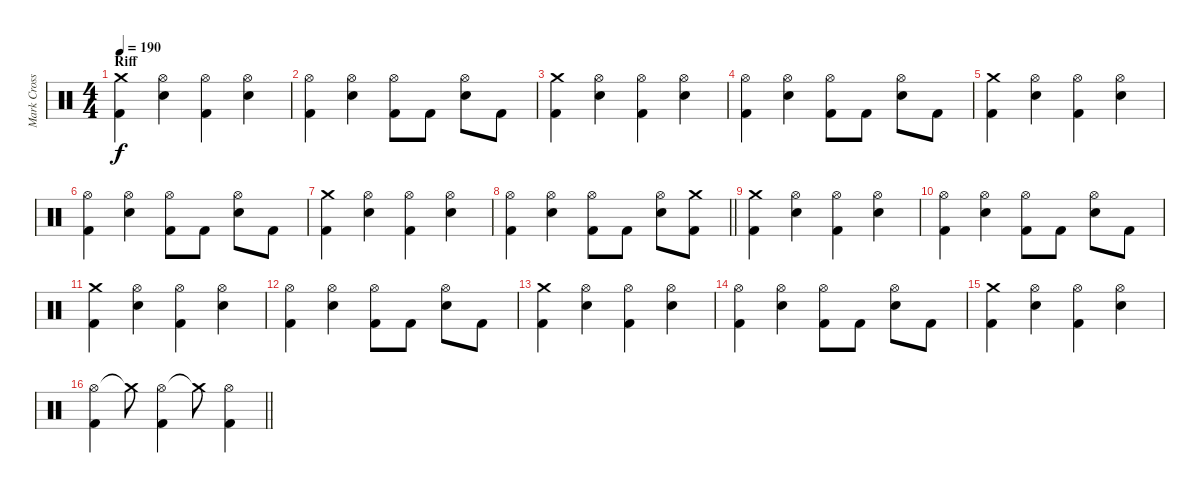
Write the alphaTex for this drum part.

\track ("Mark Cross" "Mark Cross") {instrument percussion}
\staff {score}
\articulation defaults
\ts (4 4)
\section ("" "Riff")
\tempo 190
\clef neutral
\ks c
("Crash medium (hit)" "Kick (hit) 2").4{dy f} ("Hi-Hat (open)" "Electric Snare (hit)").4 ("Hi-Hat (open)" "Kick (hit) 2").4 ("Hi-Hat (open)" "Electric Snare (hit)").4 |
("Hi-Hat (open)" "Kick (hit) 2").4 ("Hi-Hat (open)" "Electric Snare (hit)").4 ("Hi-Hat (open)" "Kick (hit) 2").8 "Kick (hit) 2".8 ("Hi-Hat (open)" "Electric Snare (hit)").8 "Kick (hit) 2".8 |
("Crash medium (hit)" "Kick (hit) 2").4 ("Hi-Hat (open)" "Electric Snare (hit)").4 ("Hi-Hat (open)" "Kick (hit) 2").4 ("Hi-Hat (open)" "Electric Snare (hit)").4 |
("Hi-Hat (open)" "Kick (hit) 2").4 ("Hi-Hat (open)" "Electric Snare (hit)").4 ("Hi-Hat (open)" "Kick (hit) 2").8 "Kick (hit) 2".8 ("Hi-Hat (open)" "Electric Snare (hit)").8 "Kick (hit) 2".8 |
("Crash medium (hit)" "Kick (hit) 2").4 ("Hi-Hat (open)" "Electric Snare (hit)").4 ("Hi-Hat (open)" "Kick (hit) 2").4 ("Hi-Hat (open)" "Electric Snare (hit)").4 |
("Hi-Hat (open)" "Kick (hit) 2").4 ("Hi-Hat (open)" "Electric Snare (hit)").4 ("Hi-Hat (open)" "Kick (hit) 2").8 "Kick (hit) 2".8 ("Hi-Hat (open)" "Electric Snare (hit)").8 "Kick (hit) 2".8 |
("Crash medium (hit)" "Kick (hit) 2").4 ("Hi-Hat (open)" "Electric Snare (hit)").4 ("Hi-Hat (open)" "Kick (hit) 2").4 ("Hi-Hat (open)" "Electric Snare (hit)").4 |
\barLineRight lightlight
("Hi-Hat (open)" "Kick (hit) 2").4 ("Hi-Hat (open)" "Electric Snare (hit)").4 ("Hi-Hat (open)" "Kick (hit) 2").8 "Kick (hit) 2".8 ("Hi-Hat (open)" "Electric Snare (hit)").8 ("Crash medium (hit)" "Kick (hit) 2").8 |
("Crash medium (hit)" "Kick (hit) 2").4 ("Hi-Hat (open)" "Electric Snare (hit)").4 ("Hi-Hat (open)" "Kick (hit) 2").4 ("Hi-Hat (open)" "Electric Snare (hit)").4 |
("Hi-Hat (open)" "Kick (hit) 2").4 ("Hi-Hat (open)" "Electric Snare (hit)").4 ("Hi-Hat (open)" "Kick (hit) 2").8 "Kick (hit) 2".8 ("Hi-Hat (open)" "Electric Snare (hit)").8 "Kick (hit) 2".8 |
("Crash medium (hit)" "Kick (hit) 2").4 ("Hi-Hat (open)" "Electric Snare (hit)").4 ("Hi-Hat (open)" "Kick (hit) 2").4 ("Hi-Hat (open)" "Electric Snare (hit)").4 |
("Hi-Hat (open)" "Kick (hit) 2").4 ("Hi-Hat (open)" "Electric Snare (hit)").4 ("Hi-Hat (open)" "Kick (hit) 2").8 "Kick (hit) 2".8 ("Hi-Hat (open)" "Electric Snare (hit)").8 "Kick (hit) 2".8 |
("Crash medium (hit)" "Kick (hit) 2").4 ("Hi-Hat (open)" "Electric Snare (hit)").4 ("Hi-Hat (open)" "Kick (hit) 2").4 ("Hi-Hat (open)" "Electric Snare (hit)").4 |
("Hi-Hat (open)" "Kick (hit) 2").4 ("Hi-Hat (open)" "Electric Snare (hit)").4 ("Hi-Hat (open)" "Kick (hit) 2").8 "Kick (hit) 2".8 ("Hi-Hat (open)" "Electric Snare (hit)").8 "Kick (hit) 2".8 |
("Crash medium (hit)" "Kick (hit) 2").4 ("Hi-Hat (open)" "Electric Snare (hit)").4 ("Hi-Hat (open)" "Kick (hit) 2").4 ("Hi-Hat (open)" "Electric Snare (hit)").4 |
\barLineRight lightlight
("Hi-Hat (open)" "Kick (hit) 2").4 "Crash medium (hit)"{t}.8 ("Hi-Hat (open)" "Kick (hit) 2").4 "Crash medium (hit)"{t}.8 ("Hi-Hat (open)" "Kick (hit) 2").4
